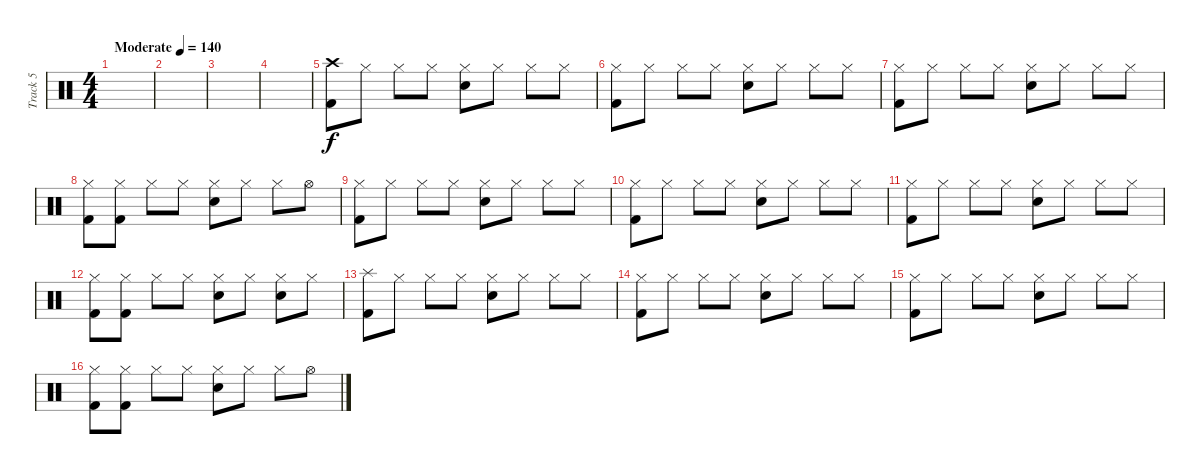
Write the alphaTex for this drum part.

\track ("Track 5" "Track 5") {instrument percussion}
\staff {score}
\articulation defaults
\ts (4 4)
\tempo (140 "Moderate")
\clef neutral
\ks c
|
|
|
|
("Kick (hit) 2" "Crash high (hit)").8 "Hi-Hat (closed)".8 "Hi-Hat (closed)".8 "Hi-Hat (closed)".8 ("Electric Snare (hit)" "Hi-Hat (closed)").8 "Hi-Hat (closed)".8 "Hi-Hat (closed)".8 "Hi-Hat (closed)".8 |
("Kick (hit) 2" "Hi-Hat (closed)").8 "Hi-Hat (closed)".8 "Hi-Hat (closed)".8 "Hi-Hat (closed)".8 ("Electric Snare (hit)" "Hi-Hat (closed)").8 "Hi-Hat (closed)".8 "Hi-Hat (closed)".8 "Hi-Hat (closed)".8 |
("Kick (hit) 2" "Hi-Hat (closed)").8 "Hi-Hat (closed)".8 "Hi-Hat (closed)".8 "Hi-Hat (closed)".8 ("Electric Snare (hit)" "Hi-Hat (closed)").8 "Hi-Hat (closed)".8 "Hi-Hat (closed)".8 "Hi-Hat (closed)".8 |
("Kick (hit) 2" "Hi-Hat (closed)").8 ("Hi-Hat (closed)" "Kick (hit) 2").8 "Hi-Hat (closed)".8 "Hi-Hat (closed)".8 ("Electric Snare (hit)" "Hi-Hat (closed)").8 "Hi-Hat (closed)".8 "Hi-Hat (closed)".8 "Hi-Hat (open)".8 |
("Kick (hit) 2" "Hi-Hat (closed)").8 "Hi-Hat (closed)".8 "Hi-Hat (closed)".8 "Hi-Hat (closed)".8 ("Electric Snare (hit)" "Hi-Hat (closed)").8 "Hi-Hat (closed)".8 "Hi-Hat (closed)".8 "Hi-Hat (closed)".8 |
("Kick (hit) 2" "Hi-Hat (closed)").8 "Hi-Hat (closed)".8 "Hi-Hat (closed)".8 "Hi-Hat (closed)".8 ("Electric Snare (hit)" "Hi-Hat (closed)").8 "Hi-Hat (closed)".8 "Hi-Hat (closed)".8 "Hi-Hat (closed)".8 |
("Kick (hit) 2" "Hi-Hat (closed)").8 "Hi-Hat (closed)".8 "Hi-Hat (closed)".8 "Hi-Hat (closed)".8 ("Electric Snare (hit)" "Hi-Hat (closed)").8 "Hi-Hat (closed)".8 "Hi-Hat (closed)".8 "Hi-Hat (closed)".8 |
("Kick (hit) 2" "Hi-Hat (closed)").8 ("Hi-Hat (closed)" "Kick (hit) 2").8 "Hi-Hat (closed)".8 "Hi-Hat (closed)".8 ("Electric Snare (hit)" "Hi-Hat (closed)").8 "Hi-Hat (closed)".8 ("Hi-Hat (closed)" "Electric Snare (hit)").8 "Hi-Hat (closed)".8 |
("Kick (hit) 2" "Splash (hit)").8 "Hi-Hat (closed)".8 "Hi-Hat (closed)".8 "Hi-Hat (closed)".8 ("Electric Snare (hit)" "Hi-Hat (closed)").8 "Hi-Hat (closed)".8 "Hi-Hat (closed)".8 "Hi-Hat (closed)".8 |
("Kick (hit) 2" "Hi-Hat (closed)").8 "Hi-Hat (closed)".8 "Hi-Hat (closed)".8 "Hi-Hat (closed)".8 ("Electric Snare (hit)" "Hi-Hat (closed)").8 "Hi-Hat (closed)".8 "Hi-Hat (closed)".8 "Hi-Hat (closed)".8 |
("Kick (hit) 2" "Hi-Hat (closed)").8 "Hi-Hat (closed)".8 "Hi-Hat (closed)".8 "Hi-Hat (closed)".8 ("Electric Snare (hit)" "Hi-Hat (closed)").8 "Hi-Hat (closed)".8 "Hi-Hat (closed)".8 "Hi-Hat (closed)".8 |
("Kick (hit) 2" "Hi-Hat (closed)").8 ("Hi-Hat (closed)" "Kick (hit) 2").8 "Hi-Hat (closed)".8 "Hi-Hat (closed)".8 ("Electric Snare (hit)" "Hi-Hat (closed)").8 "Hi-Hat (closed)".8 "Hi-Hat (closed)".8 "Hi-Hat (open)".8
